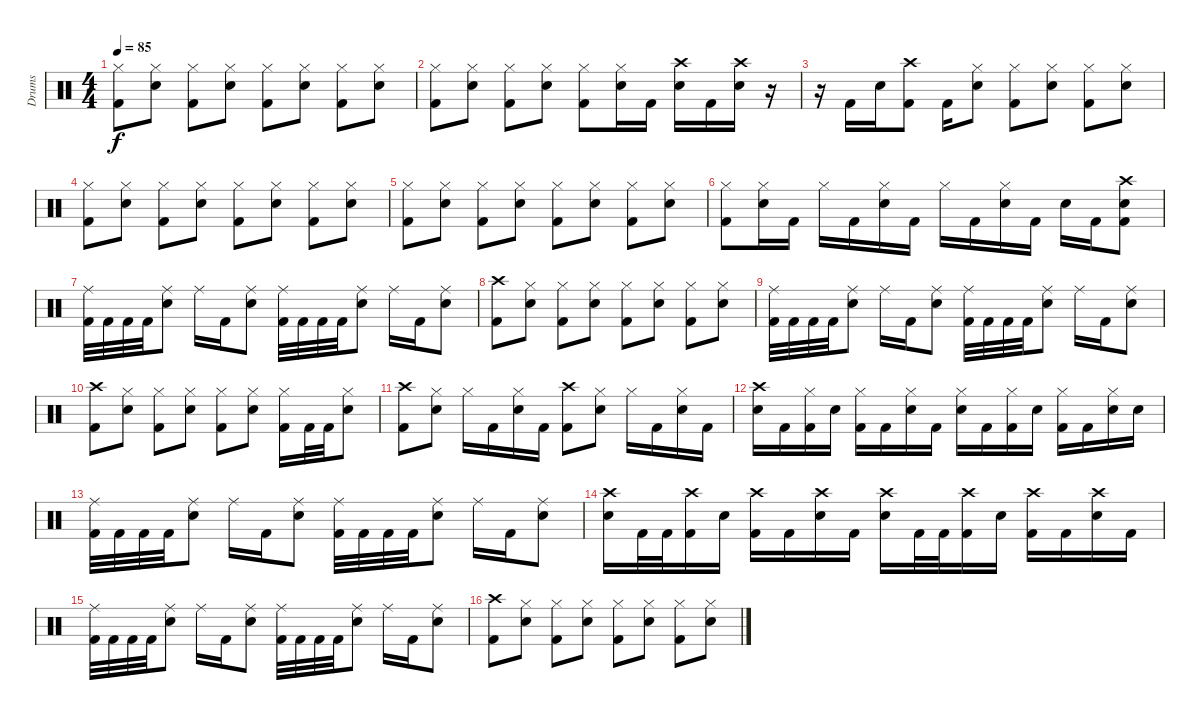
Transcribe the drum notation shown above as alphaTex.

\track ("Drums" "Drums") {instrument percussion}
\staff {score}
\articulation defaults
\ts (4 4)
\tempo 85
\clef neutral
\ks c
("Hi-Hat (closed)" "Kick (hit) 2").8{dy f} ("Hi-Hat (closed)" "Electric Snare (hit)").8 ("Hi-Hat (closed)" "Kick (hit) 2").8 ("Hi-Hat (closed)" "Electric Snare (hit)").8 ("Hi-Hat (closed)" "Kick (hit) 2").8 ("Hi-Hat (closed)" "Electric Snare (hit)").8 ("Hi-Hat (closed)" "Kick (hit) 2").8 ("Hi-Hat (closed)" "Electric Snare (hit)").8 |
("Hi-Hat (closed)" "Kick (hit) 2").8 ("Hi-Hat (closed)" "Electric Snare (hit)").8 ("Hi-Hat (closed)" "Kick (hit) 2").8 ("Hi-Hat (closed)" "Electric Snare (hit)").8 ("Hi-Hat (closed)" "Kick (hit) 2").8 ("Hi-Hat (closed)" "Electric Snare (hit)").16 "Kick (hit) 2".16 ("Crash high (hit)" "Electric Snare (hit)").16 "Kick (hit) 2".16 ("Crash high (hit)" "Electric Snare (hit)").16 r.16 |
r.16 "Kick (hit) 2".16 "Electric Snare (hit)".16 ("Crash high (hit)" "Kick (hit) 2").8 "Kick (hit) 2".16 ("Hi-Hat (closed)" "Electric Snare (hit)").8 ("Hi-Hat (closed)" "Kick (hit) 2").8 ("Hi-Hat (closed)" "Electric Snare (hit)").8 ("Hi-Hat (closed)" "Kick (hit) 2").8 ("Hi-Hat (closed)" "Electric Snare (hit)").8 |
("Hi-Hat (closed)" "Kick (hit) 2").8 ("Hi-Hat (closed)" "Electric Snare (hit)").8 ("Hi-Hat (closed)" "Kick (hit) 2").8 ("Hi-Hat (closed)" "Electric Snare (hit)").8 ("Hi-Hat (closed)" "Kick (hit) 2").8 ("Hi-Hat (closed)" "Electric Snare (hit)").8 ("Hi-Hat (closed)" "Kick (hit) 2").8 ("Hi-Hat (closed)" "Electric Snare (hit)").8 |
("Hi-Hat (closed)" "Kick (hit) 2").8 ("Hi-Hat (closed)" "Electric Snare (hit)").8 ("Hi-Hat (closed)" "Kick (hit) 2").8 ("Hi-Hat (closed)" "Electric Snare (hit)").8 ("Hi-Hat (closed)" "Kick (hit) 2").8 ("Hi-Hat (closed)" "Electric Snare (hit)").8 ("Hi-Hat (closed)" "Kick (hit) 2").8 ("Hi-Hat (closed)" "Electric Snare (hit)").8 |
("Hi-Hat (closed)" "Kick (hit) 2").8 ("Hi-Hat (closed)" "Electric Snare (hit)").16 "Kick (hit) 2".16 "Hi-Hat (closed)".16 "Kick (hit) 2".16 ("Hi-Hat (closed)" "Electric Snare (hit)").16 "Kick (hit) 2".16 "Hi-Hat (closed)".16 "Kick (hit) 2".16 ("Hi-Hat (closed)" "Electric Snare (hit)").16 "Kick (hit) 2".16 "Electric Snare (hit)".16 "Kick (hit) 2".16 ("Crash high (hit)" "Electric Snare (hit)" "Kick (hit) 2").8 |
("Ride (middle)" "Kick (hit) 2").32 "Kick (hit) 2".32 "Kick (hit) 2".32 "Kick (hit) 2".32 ("Ride (middle)" "Electric Snare (hit)").8 "Ride (middle)".16 "Kick (hit) 2".16 ("Ride (middle)" "Electric Snare (hit)").8 ("Ride (middle)" "Kick (hit) 2").32 "Kick (hit) 2".32 "Kick (hit) 2".32 "Kick (hit) 2".32 ("Ride (middle)" "Electric Snare (hit)").8 "Ride (middle)".16 "Kick (hit) 2".16 ("Ride (middle)" "Electric Snare (hit)").8 |
("Crash high (hit)" "Kick (hit) 2").8 ("Hi-Hat (closed)" "Electric Snare (hit)").8 ("Hi-Hat (closed)" "Kick (hit) 2").8 ("Hi-Hat (closed)" "Electric Snare (hit)").8 ("Hi-Hat (closed)" "Kick (hit) 2").8 ("Hi-Hat (closed)" "Electric Snare (hit)").8 ("Hi-Hat (closed)" "Kick (hit) 2").8 ("Hi-Hat (closed)" "Electric Snare (hit)").8 |
("Ride (middle)" "Kick (hit) 2").32 "Kick (hit) 2".32 "Kick (hit) 2".32 "Kick (hit) 2".32 ("Ride (middle)" "Electric Snare (hit)").8 "Ride (middle)".16 "Kick (hit) 2".16 ("Ride (middle)" "Electric Snare (hit)").8 ("Ride (middle)" "Kick (hit) 2").32 "Kick (hit) 2".32 "Kick (hit) 2".32 "Kick (hit) 2".32 ("Ride (middle)" "Electric Snare (hit)").8 "Ride (middle)".16 "Kick (hit) 2".16 ("Ride (middle)" "Electric Snare (hit)").8 |
("Crash high (hit)" "Kick (hit) 2").8 ("Hi-Hat (closed)" "Electric Snare (hit)").8 ("Hi-Hat (closed)" "Kick (hit) 2").8 ("Hi-Hat (closed)" "Electric Snare (hit)").8 ("Hi-Hat (closed)" "Kick (hit) 2").8 ("Hi-Hat (closed)" "Electric Snare (hit)").8 ("Hi-Hat (closed)" "Kick (hit) 2").16 "Kick (hit) 2".32 "Kick (hit) 2".32 ("Hi-Hat (closed)" "Electric Snare (hit)").8 |
("Crash high (hit)" "Kick (hit) 2").8 ("Hi-Hat (closed)" "Electric Snare (hit)").8 "Hi-Hat (closed)".16 "Kick (hit) 2".16 ("Hi-Hat (closed)" "Electric Snare (hit)").16 "Kick (hit) 2".16 ("Crash high (hit)" "Kick (hit) 2").8 ("Hi-Hat (closed)" "Electric Snare (hit)").8 "Hi-Hat (closed)".16 "Kick (hit) 2".16 ("Hi-Hat (closed)" "Electric Snare (hit)").16 "Kick (hit) 2".16 |
("Crash high (hit)" "Electric Snare (hit)").16 "Kick (hit) 2".16 ("Hi-Hat (closed)" "Kick (hit) 2").16 "Electric Snare (hit)".16 ("Hi-Hat (closed)" "Kick (hit) 2").16 "Kick (hit) 2".16 ("Hi-Hat (closed)" "Electric Snare (hit)").16 "Kick (hit) 2".16 ("Hi-Hat (closed)" "Electric Snare (hit)").16 "Kick (hit) 2".16 ("Hi-Hat (closed)" "Kick (hit) 2").16 "Electric Snare (hit)".16 ("Hi-Hat (closed)" "Kick (hit) 2").16 "Kick (hit) 2".16 ("Hi-Hat (closed)" "Electric Snare (hit)").16 "Electric Snare (hit)".16 |
("Ride (middle)" "Kick (hit) 2").32 "Kick (hit) 2".32 "Kick (hit) 2".32 "Kick (hit) 2".32 ("Ride (middle)" "Electric Snare (hit)").8 "Ride (middle)".16 "Kick (hit) 2".16 ("Ride (middle)" "Electric Snare (hit)").8 ("Ride (middle)" "Kick (hit) 2").32 "Kick (hit) 2".32 "Kick (hit) 2".32 "Kick (hit) 2".32 ("Ride (middle)" "Electric Snare (hit)").8 "Ride (middle)".16 "Kick (hit) 2".16 ("Ride (middle)" "Electric Snare (hit)").8 |
("Crash high (hit)" "Electric Snare (hit)").16 "Kick (hit) 2".32 "Kick (hit) 2".32 ("Crash high (hit)" "Kick (hit) 2").16 "Electric Snare (hit)".16 ("Crash high (hit)" "Kick (hit) 2").16 "Kick (hit) 2".16 ("Crash high (hit)" "Electric Snare (hit)").16 "Kick (hit) 2".16 ("Crash high (hit)" "Electric Snare (hit)").16 "Kick (hit) 2".32 "Kick (hit) 2".32 ("Crash high (hit)" "Kick (hit) 2").16 "Electric Snare (hit)".16 ("Crash high (hit)" "Kick (hit) 2").16 "Kick (hit) 2".16 ("Crash high (hit)" "Electric Snare (hit)").16 "Kick (hit) 2".16 |
("Ride (middle)" "Kick (hit) 2").32 "Kick (hit) 2".32 "Kick (hit) 2".32 "Kick (hit) 2".32 ("Ride (middle)" "Electric Snare (hit)").8 "Ride (middle)".16 "Kick (hit) 2".16 ("Ride (middle)" "Electric Snare (hit)").8 ("Ride (middle)" "Kick (hit) 2").32 "Kick (hit) 2".32 "Kick (hit) 2".32 "Kick (hit) 2".32 ("Ride (middle)" "Electric Snare (hit)").8 "Ride (middle)".16 "Kick (hit) 2".16 ("Ride (middle)" "Electric Snare (hit)").8 |
("Crash high (hit)" "Kick (hit) 2").8 ("Hi-Hat (closed)" "Electric Snare (hit)").8 ("Hi-Hat (closed)" "Kick (hit) 2").8 ("Hi-Hat (closed)" "Electric Snare (hit)").8 ("Hi-Hat (closed)" "Kick (hit) 2").8 ("Hi-Hat (closed)" "Electric Snare (hit)").8 ("Hi-Hat (closed)" "Kick (hit) 2").8 ("Hi-Hat (closed)" "Electric Snare (hit)").8
